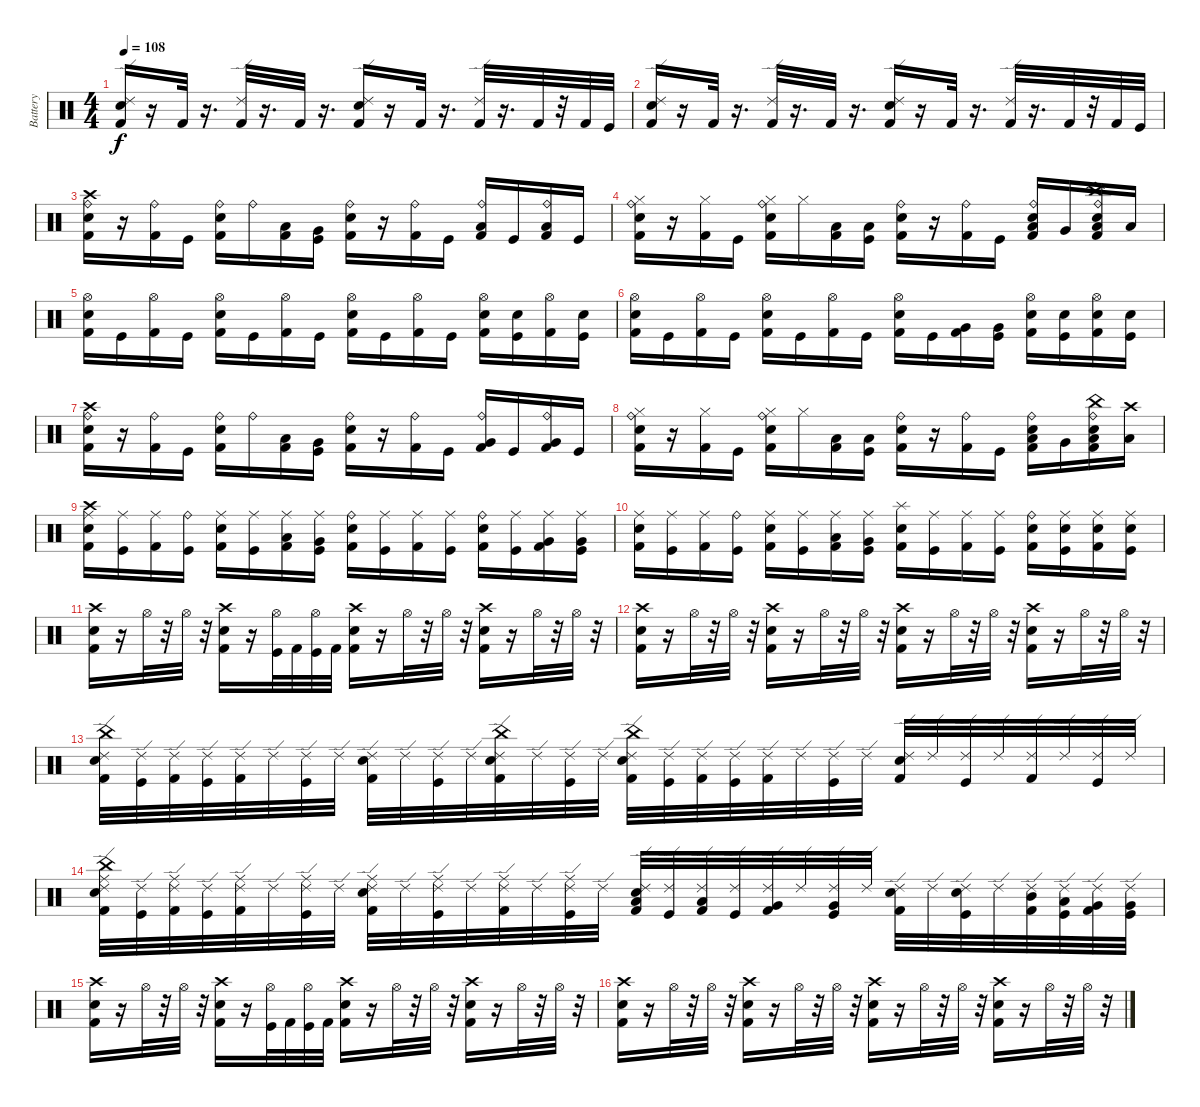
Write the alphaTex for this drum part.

\track ("Battery" "Battery") {instrument percussion}
\staff {score}
\articulation defaults
\ts (4 4)
\tempo 108
\clef neutral
\ks c
("Ride (edge) 2" "Kick (hit) 2" "Snare (hit) 2").16{dy f} r.16 "Kick (hit) 2".32 r.16{d} ("Ride (edge) 2" "Kick (hit) 2").32 r.16{d} "Kick (hit) 2".32 r.16{d} ("Kick (hit) 2" "Ride (edge) 2" "Snare (hit) 2").16 r.16 "Kick (hit) 2".32 r.16{d} ("Ride (edge) 2" "Kick (hit) 2").32 r.16{d} "Kick (hit) 2".32 r.32 "Kick (hit) 2".32 "Kick (hit)".32 |
("Ride (edge) 2" "Kick (hit) 2" "Snare (hit) 2").16 r.16 "Kick (hit) 2".32 r.16{d} ("Ride (edge) 2" "Kick (hit) 2").32 r.16{d} "Kick (hit) 2".32 r.16{d} ("Snare (hit) 2" "Ride (edge) 2" "Kick (hit) 2").16 r.16 "Kick (hit) 2".32 r.16{d} ("Kick (hit) 2" "Ride (edge) 2").32 r.16{d} "Kick (hit) 2".32 r.32 "Kick (hit) 2".32 "Kick (hit)".32 |
("Ride (bell)" "Crash high (hit)" "Kick (hit) 2" "Electric Snare (hit)").16 r.16 ("Kick (hit) 2" "Ride (bell)").16 "Kick (hit)".16 ("Kick (hit) 2" "Ride (bell)" "Electric Snare (hit)").16 "Ride (bell)".16 ("Kick (hit) 2" "Low Tom (hit)").16 ("Kick (hit)" "Very Low Tom (hit)").16 ("Kick (hit) 2" "Electric Snare (hit)" "Ride (bell)").16 r.16 ("Kick (hit) 2" "Ride (bell)").16 "Kick (hit)".16 ("Ride (bell)" "Kick (hit) 2" "Low Tom (hit)").16 "Kick (hit)".16 ("Kick (hit) 2" "Ride (bell)" "Low Tom (hit)").16 "Kick (hit)".16 |
("Hi-Hat (closed)" "Electric Snare (hit)" "Ride (bell)" "Kick (hit) 2").16 r.16 ("Hi-Hat (closed)" "Kick (hit) 2").16 "Kick (hit)".16 ("Ride (bell)" "Hi-Hat (closed)" "Kick (hit) 2" "Electric Snare (hit)").16 "Hi-Hat (closed)".16 ("Low Tom (hit)" "Kick (hit) 2").16 ("Low Tom (hit)" "Kick (hit)").16 ("Electric Snare (hit)" "Ride (bell)" "Kick (hit) 2").16 r.16 ("Kick (hit) 2" "Ride (bell)").16 "Kick (hit)".16 ("Kick (hit) 2" "Low Tom (hit)" "Ride (bell)" "Electric Snare (hit)").16 "Very Low Tom (hit)".16 ("China (hit)" "Electric Snare (hit)" "Ride (bell)" "Kick (hit) 2" "Low Floor Tom (hit)").16 "Low Floor Tom (hit)".16 |
("Hi-Hat (open)" "Electric Snare (hit)" "Kick (hit) 2").16 "Kick (hit)".16 ("Hi-Hat (open)" "Kick (hit) 2").16 "Kick (hit)".16 ("Hi-Hat (open)" "Kick (hit) 2" "Electric Snare (hit)").16 "Kick (hit)".16 ("Hi-Hat (open)" "Kick (hit) 2").16 "Kick (hit)".16 ("Electric Snare (hit)" "Hi-Hat (open)" "Kick (hit) 2").16 "Kick (hit)".16 ("Kick (hit) 2" "Hi-Hat (open)").16 "Kick (hit)".16 ("Electric Snare (hit)" "Hi-Hat (open)" "Kick (hit) 2").16 ("Electric Snare (hit)" "Kick (hit)").16 ("Hi-Hat (open)" "Kick (hit) 2").16 ("Electric Snare (hit)" "Kick (hit)").16 |
("Hi-Hat (open)" "Kick (hit) 2" "Electric Snare (hit)").16 "Kick (hit)".16 ("Kick (hit) 2" "Hi-Hat (open)").16 "Kick (hit)".16 ("Hi-Hat (open)" "Kick (hit) 2" "Electric Snare (hit)").16 "Kick (hit)".16 ("Kick (hit) 2" "Hi-Hat (open)").16 "Kick (hit)".16 ("Hi-Hat (open)" "Kick (hit) 2" "Electric Snare (hit)").16 "Kick (hit)".16 ("Very Low Tom (hit)" "Kick (hit) 2").16 ("Kick (hit)" "Very Low Tom (hit)").16 ("Snare (hit) 2" "Kick (hit) 2" "Hi-Hat (open)").16 ("Snare (hit) 2" "Kick (hit)").16 ("Kick (hit) 2" "Hi-Hat (open)" "Electric Snare (hit)").16 ("Electric Snare (hit)" "Kick (hit)").16 |
("Crash high (hit)" "Electric Snare (hit)" "Ride (bell)" "Kick (hit) 2").16 r.16 ("Ride (bell)" "Kick (hit) 2").16 "Kick (hit)".16 ("Electric Snare (hit)" "Ride (bell)" "Kick (hit) 2").16 "Ride (bell)".16 ("Kick (hit) 2" "Low Tom (hit)").16 ("Kick (hit)" "Very Low Tom (hit)").16 ("Electric Snare (hit)" "Kick (hit) 2" "Ride (bell)").16 r.16 ("Ride (bell)" "Kick (hit) 2").16 "Kick (hit)".16 ("Very Low Tom (hit)" "Kick (hit) 2" "Ride (bell)").16 "Kick (hit)".16 ("Ride (bell)" "Kick (hit) 2" "Very Low Tom (hit)").16 "Kick (hit)".16 |
("Electric Snare (hit)" "Ride (bell)" "Kick (hit) 2" "Hi-Hat (closed)").16 r.16 ("Kick (hit) 2" "Hi-Hat (closed)").16 "Kick (hit)".16 ("Kick (hit) 2" "Hi-Hat (closed)" "Ride (bell)" "Electric Snare (hit)").16 "Hi-Hat (closed)".16 ("Low Tom (hit)" "Kick (hit) 2").16 ("Kick (hit)" "Low Tom (hit)").16 ("Kick (hit) 2" "Ride (bell)" "Electric Snare (hit)").16 r.16 ("Ride (bell)" "Kick (hit) 2").16 "Kick (hit)".16 ("Ride (bell)" "Electric Snare (hit)" "Kick (hit) 2" "Low Tom (hit)").16 "Very Low Tom (hit)".16 ("Electric Snare (hit)" "Ride (bell)" "China (hit)" "Kick (hit) 2" "Low Floor Tom (hit)").16 ("Crash high (hit)" "Low Floor Tom (hit)").16 |
("Kick (hit) 2" "Electric Snare (hit)" "Crash high (hit)" "Ride (middle)").16 ("Kick (hit)" "Ride (middle)").16 ("Ride (middle)" "Kick (hit) 2").16 ("Kick (hit)" "Ride (bell)").16 ("Electric Snare (hit)" "Kick (hit) 2" "Ride (middle)").16 ("Ride (middle)" "Kick (hit)").16 ("Low Tom (hit)" "Ride (middle)" "Kick (hit) 2").16 ("Kick (hit)" "Ride (middle)" "Very Low Tom (hit)").16 ("Kick (hit) 2" "Ride (bell)" "Electric Snare (hit)").16 ("Kick (hit)" "Ride (middle)").16 ("Ride (middle)" "Kick (hit) 2").16 ("Ride (middle)" "Kick (hit)").16 ("Electric Snare (hit)" "Kick (hit) 2" "Ride (bell)").16 ("Kick (hit)" "Ride (middle)").16 ("Kick (hit) 2" "Ride (middle)" "Very Low Tom (hit)").16 ("Ride (middle)" "Kick (hit)" "Very Low Tom (hit)").16 |
("Kick (hit) 2" "Ride (middle)" "Electric Snare (hit)").16 ("Kick (hit)" "Ride (middle)").16 ("Ride (middle)" "Kick (hit) 2").16 ("Kick (hit)" "Ride (bell)").16 ("Kick (hit) 2" "Electric Snare (hit)" "Ride (middle)").16 ("Kick (hit)" "Ride (middle)").16 ("Ride (middle)" "Low Tom (hit)" "Kick (hit) 2").16 ("Kick (hit)" "Ride (middle)" "Very Low Tom (hit)").16 ("Electric Snare (hit)" "Kick (hit) 2" "Splash (hit)").16 ("Kick (hit)" "Ride (middle)").16 ("Ride (middle)" "Kick (hit) 2").16 ("Kick (hit)" "Ride (middle)").16 ("Ride (bell)" "Kick (hit) 2" "Snare (hit) 2").16 ("Ride (middle)" "Kick (hit)" "Snare (hit) 2").16 ("Kick (hit) 2" "Snare (hit) 2" "Ride (middle)").16 ("Ride (middle)" "Kick (hit)" "Snare (hit) 2").16 |
("Kick (hit) 2" "Crash high (hit)" "Electric Snare (hit)").16 r.16 "Hi-Hat (open)".32 r.32 "Hi-Hat (open)".32 r.32 ("Kick (hit) 2" "Electric Snare (hit)" "Crash high (hit)").16 r.16 ("Hi-Hat (open)" "Kick (hit)").32 "Kick (hit) 2".32 ("Kick (hit)" "Hi-Hat (open)").32 "Kick (hit) 2".32 ("Kick (hit) 2" "Crash high (hit)" "Electric Snare (hit)").16 r.16 "Hi-Hat (open)".32 r.32 "Hi-Hat (open)".32 r.32 ("Crash high (hit)" "Kick (hit) 2" "Electric Snare (hit)").16 r.16 "Hi-Hat (open)".32 r.32 "Hi-Hat (open)".32 r.32 |
("Kick (hit) 2" "Crash high (hit)" "Electric Snare (hit)").16 r.16 "Hi-Hat (open)".32 r.32 "Hi-Hat (open)".32 r.32 ("Electric Snare (hit)" "Kick (hit) 2" "Crash high (hit)").16 r.16 "Hi-Hat (open)".32 r.32 "Hi-Hat (open)".32 r.32 ("Electric Snare (hit)" "Kick (hit) 2" "Crash high (hit)").16 r.16 "Hi-Hat (open)".32 r.32 "Hi-Hat (open)".32 r.32 ("Kick (hit) 2" "Crash high (hit)" "Electric Snare (hit)").16 r.16 "Hi-Hat (open)".32 r.32 "Hi-Hat (open)".32 r.32 |
("Electric Snare (hit)" "Ride (edge) 2" "China (hit)" "Kick (hit) 2").32 ("Kick (hit)" "Ride (edge) 2").32 ("Kick (hit) 2" "Ride (edge) 2").32 ("Ride (edge) 2" "Kick (hit)").32 ("Kick (hit) 2" "Ride (edge) 2").32 "Ride (edge) 2".32 ("Ride (edge) 2" "Kick (hit)").32 "Ride (edge) 2".32 ("Ride (edge) 2" "Kick (hit) 2" "Electric Snare (hit)").32 "Ride (edge) 2".32 ("Ride (edge) 2" "Kick (hit)").32 "Ride (edge) 2".32 ("Snare (hit) 2" "Ride (edge) 2" "China (hit)" "Kick (hit) 2").32 "Ride (edge) 2".32 ("Kick (hit)" "Ride (edge) 2").32 "Ride (edge) 2".32 ("Ride (edge) 2" "Electric Snare (hit)" "China (hit)" "Kick (hit) 2").32 ("Ride (edge) 2" "Kick (hit)").32 ("Ride (edge) 2" "Kick (hit) 2").32 ("Kick (hit)" "Ride (edge) 2").32 ("Ride (edge) 2" "Kick (hit) 2").32 "Ride (edge) 2".32 ("Kick (hit)" "Ride (edge) 2").32 "Ride (edge) 2".32 ("Kick (hit) 2" "Electric Snare (hit)" "Ride (edge) 2").32 "Ride (edge) 2".32 ("Kick (hit)" "Ride (edge) 2").32 "Ride (edge) 2".32 ("Ride (edge) 2" "Kick (hit) 2").32 "Ride (edge) 2".32 ("Kick (hit)" "Ride (edge) 2").32 "Ride (edge) 2".32 |
("China (hit)" "Ride (middle)" "Ride (edge) 2" "Electric Snare (hit)" "Kick (hit) 2").32 ("Kick (hit)" "Ride (edge) 2").32 ("Ride (edge) 2" "Kick (hit) 2" "Ride (middle)").32 ("Ride (edge) 2" "Kick (hit)").32 ("Kick (hit) 2" "Ride (edge) 2" "Ride (middle)").32 "Ride (edge) 2".32 ("Ride (edge) 2" "Kick (hit)" "Ride (middle)").32 "Ride (edge) 2".32 ("Kick (hit) 2" "Electric Snare (hit)" "Ride (edge) 2" "Ride (middle)").32 "Ride (edge) 2".32 ("Ride (middle)" "Ride (edge) 2" "Kick (hit)").32 "Ride (edge) 2".32 ("Ride (edge) 2" "Kick (hit) 2" "Ride (middle)").32 "Ride (edge) 2".32 ("Kick (hit)" "Ride (middle)" "Ride (edge) 2").32 "Ride (edge) 2".32 ("Kick (hit) 2" "Electric Snare (hit)" "Ride (edge) 2" "Low Tom (hit)").32 ("Kick (hit)" "Ride (edge) 2").32 ("Low Tom (hit)" "Ride (edge) 2" "Kick (hit) 2").32 ("Ride (edge) 2" "Kick (hit)").32 ("Ride (edge) 2" "Very Low Tom (hit)" "Kick (hit) 2").32 "Ride (edge) 2".32 ("Very Low Tom (hit)" "Kick (hit)" "Ride (edge) 2").32 "Ride (edge) 2".32 ("Electric Snare (hit)" "Ride (edge) 2" "Kick (hit) 2").32 "Ride (edge) 2".32 ("Kick (hit)" "Ride (edge) 2" "Electric Snare (hit)").32 "Ride (edge) 2".32 ("Mid Tom (hit)" "Kick (hit) 2" "Ride (edge) 2").32 ("Ride (edge) 2" "Low Tom (hit)" "Kick (hit)").32 ("Very Low Tom (hit)" "Ride (edge) 2" "Kick (hit) 2").32 ("Ride (edge) 2" "Kick (hit)" "Very Low Tom (hit)").32 |
("Electric Snare (hit)" "Kick (hit) 2" "Crash high (hit)").16 r.16 "Hi-Hat (open)".32 r.32 "Hi-Hat (open)".32 r.32 ("Crash high (hit)" "Kick (hit) 2" "Electric Snare (hit)").16 r.16 ("Hi-Hat (open)" "Kick (hit)").32 "Kick (hit) 2".32 ("Kick (hit)" "Hi-Hat (open)").32 "Kick (hit) 2".32 ("Kick (hit) 2" "Crash high (hit)" "Electric Snare (hit)").16 r.16 "Hi-Hat (open)".32 r.32 "Hi-Hat (open)".32 r.32 ("Electric Snare (hit)" "Crash high (hit)" "Kick (hit) 2").16 r.16 "Hi-Hat (open)".32 r.32 "Hi-Hat (open)".32 r.32 |
("Electric Snare (hit)" "Kick (hit) 2" "Crash high (hit)").16 r.16 "Hi-Hat (open)".32 r.32 "Hi-Hat (open)".32 r.32 ("Electric Snare (hit)" "Kick (hit) 2" "Crash high (hit)").16 r.16 "Hi-Hat (open)".32 r.32 "Hi-Hat (open)".32 r.32 ("Electric Snare (hit)" "Kick (hit) 2" "Crash high (hit)").16 r.16 "Hi-Hat (open)".32 r.32 "Hi-Hat (open)".32 r.32 ("Kick (hit) 2" "Electric Snare (hit)" "Crash high (hit)").16 r.16 "Hi-Hat (open)".32 r.32 "Hi-Hat (open)".32 r.32
